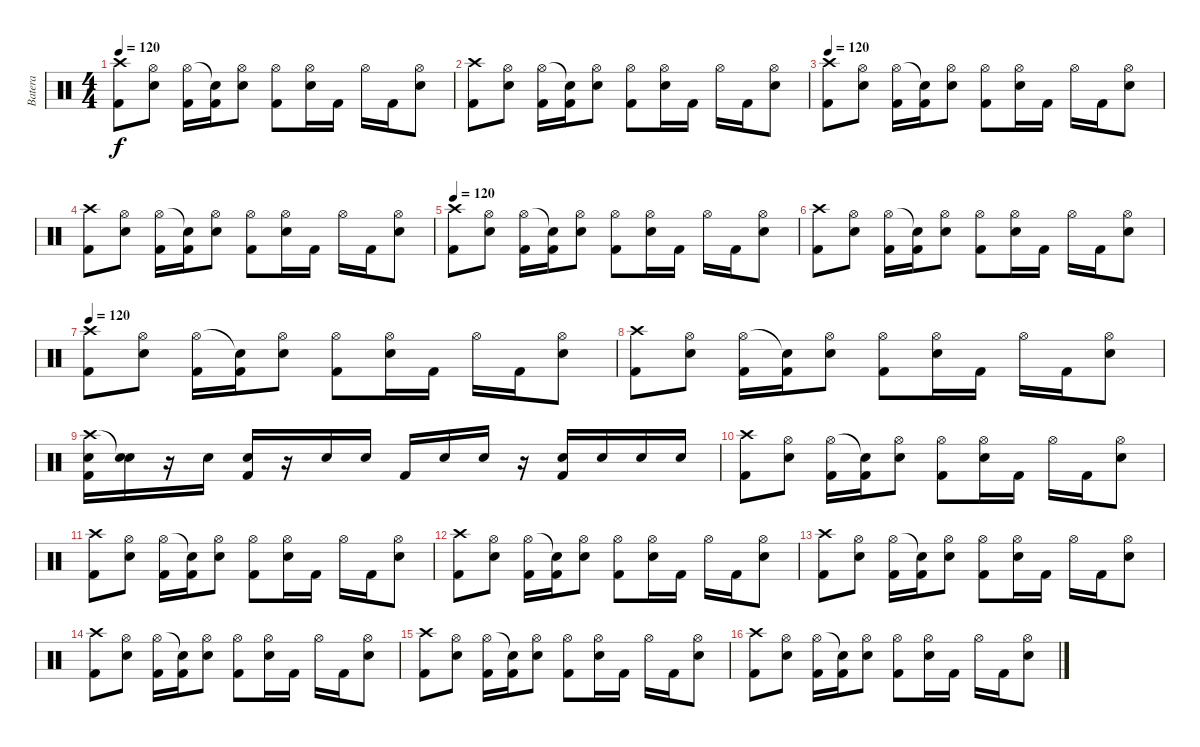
\track ("Batera" "Batera") {instrument percussion}
\staff {score}
\articulation defaults
\ts (4 4)
\tempo 120
\clef neutral
\ks c
("Crash high (hit)" "Kick (hit) 2").8{dy f} ("Hi-Hat (open)" "Electric Snare (hit)").8 ("Hi-Hat (open)" "Kick (hit) 2").16 ("Snare (hit)"{t} "Kick (hit) 2").16 ("Hi-Hat (open)" "Electric Snare (hit)").8 ("Hi-Hat (open)" "Kick (hit) 2").8 ("Hi-Hat (open)" "Electric Snare (hit)").16 "Kick (hit) 2".16 "Hi-Hat (open)".16 "Kick (hit) 2".16 ("Hi-Hat (open)" "Electric Snare (hit)").8 |
("Crash high (hit)" "Kick (hit) 2").8 ("Hi-Hat (open)" "Electric Snare (hit)").8 ("Hi-Hat (open)" "Kick (hit) 2").16 ("Snare (hit)"{t} "Kick (hit) 2").16 ("Hi-Hat (open)" "Electric Snare (hit)").8 ("Hi-Hat (open)" "Kick (hit) 2").8 ("Hi-Hat (open)" "Electric Snare (hit)").16 "Kick (hit) 2".16 "Hi-Hat (open)".16 "Kick (hit) 2".16 ("Hi-Hat (open)" "Electric Snare (hit)").8 |
\tempo 120
("Crash high (hit)" "Kick (hit) 2").8 ("Hi-Hat (open)" "Electric Snare (hit)").8 ("Hi-Hat (open)" "Kick (hit) 2").16 ("Snare (hit)"{t} "Kick (hit) 2").16 ("Hi-Hat (open)" "Electric Snare (hit)").8 ("Hi-Hat (open)" "Kick (hit) 2").8 ("Hi-Hat (open)" "Electric Snare (hit)").16 "Kick (hit) 2".16 "Hi-Hat (open)".16 "Kick (hit) 2".16 ("Hi-Hat (open)" "Electric Snare (hit)").8 |
("Crash high (hit)" "Kick (hit) 2").8 ("Hi-Hat (open)" "Electric Snare (hit)").8 ("Hi-Hat (open)" "Kick (hit) 2").16 ("Snare (hit)"{t} "Kick (hit) 2").16 ("Hi-Hat (open)" "Electric Snare (hit)").8 ("Hi-Hat (open)" "Kick (hit) 2").8 ("Hi-Hat (open)" "Electric Snare (hit)").16 "Kick (hit) 2".16 "Hi-Hat (open)".16 "Kick (hit) 2".16 ("Hi-Hat (open)" "Electric Snare (hit)").8 |
\tempo 120
("Crash high (hit)" "Kick (hit) 2").8 ("Hi-Hat (open)" "Electric Snare (hit)").8 ("Hi-Hat (open)" "Kick (hit) 2").16 ("Snare (hit)"{t} "Kick (hit) 2").16 ("Hi-Hat (open)" "Electric Snare (hit)").8 ("Hi-Hat (open)" "Kick (hit) 2").8 ("Hi-Hat (open)" "Electric Snare (hit)").16 "Kick (hit) 2".16 "Hi-Hat (open)".16 "Kick (hit) 2".16 ("Hi-Hat (open)" "Electric Snare (hit)").8 |
("Crash high (hit)" "Kick (hit) 2").8 ("Hi-Hat (open)" "Electric Snare (hit)").8 ("Hi-Hat (open)" "Kick (hit) 2").16 ("Snare (hit)"{t} "Kick (hit) 2").16 ("Hi-Hat (open)" "Electric Snare (hit)").8 ("Hi-Hat (open)" "Kick (hit) 2").8 ("Hi-Hat (open)" "Electric Snare (hit)").16 "Kick (hit) 2".16 "Hi-Hat (open)".16 "Kick (hit) 2".16 ("Hi-Hat (open)" "Electric Snare (hit)").8 |
\tempo 120
("Crash high (hit)" "Kick (hit) 2").8 ("Hi-Hat (open)" "Electric Snare (hit)").8 ("Hi-Hat (open)" "Kick (hit) 2").16 ("Snare (hit)"{t} "Kick (hit) 2").16 ("Hi-Hat (open)" "Electric Snare (hit)").8 ("Hi-Hat (open)" "Kick (hit) 2").8 ("Hi-Hat (open)" "Electric Snare (hit)").16 "Kick (hit) 2".16 "Hi-Hat (open)".16 "Kick (hit) 2".16 ("Hi-Hat (open)" "Electric Snare (hit)").8 |
("Crash high (hit)" "Kick (hit) 2").8 ("Hi-Hat (open)" "Electric Snare (hit)").8 ("Hi-Hat (open)" "Kick (hit) 2").16 ("Snare (hit)"{t} "Kick (hit) 2").16 ("Hi-Hat (open)" "Electric Snare (hit)").8 ("Hi-Hat (open)" "Kick (hit) 2").8 ("Hi-Hat (open)" "Electric Snare (hit)").16 "Kick (hit) 2".16 "Hi-Hat (open)".16 "Kick (hit) 2".16 ("Hi-Hat (open)" "Electric Snare (hit)").8 |
("Crash high (hit)" "Electric Snare (hit)" "Kick (hit) 2").16 ("Snare (hit)"{t} "Electric Snare (hit)").16 r.16 "Electric Snare (hit)".16 ("Electric Snare (hit)" "Kick (hit) 2").16 r.16 "Electric Snare (hit)".16 "Electric Snare (hit)".16 "Kick (hit) 2".16 "Electric Snare (hit)".16 "Electric Snare (hit)".16 r.16 ("Electric Snare (hit)" "Kick (hit) 2").16 "Electric Snare (hit)".16 "Electric Snare (hit)".16 "Electric Snare (hit)".16 |
("Crash high (hit)" "Kick (hit) 2").8 ("Hi-Hat (open)" "Electric Snare (hit)").8 ("Hi-Hat (open)" "Kick (hit) 2").16 ("Snare (hit)"{t} "Kick (hit) 2").16 ("Hi-Hat (open)" "Electric Snare (hit)").8 ("Hi-Hat (open)" "Kick (hit) 2").8 ("Hi-Hat (open)" "Electric Snare (hit)").16 "Kick (hit) 2".16 "Hi-Hat (open)".16 "Kick (hit) 2".16 ("Hi-Hat (open)" "Electric Snare (hit)").8 |
("Crash high (hit)" "Kick (hit) 2").8 ("Hi-Hat (open)" "Electric Snare (hit)").8 ("Hi-Hat (open)" "Kick (hit) 2").16 ("Snare (hit)"{t} "Kick (hit) 2").16 ("Hi-Hat (open)" "Electric Snare (hit)").8 ("Hi-Hat (open)" "Kick (hit) 2").8 ("Hi-Hat (open)" "Electric Snare (hit)").16 "Kick (hit) 2".16 "Hi-Hat (open)".16 "Kick (hit) 2".16 ("Hi-Hat (open)" "Electric Snare (hit)").8 |
("Crash high (hit)" "Kick (hit) 2").8 ("Hi-Hat (open)" "Electric Snare (hit)").8 ("Hi-Hat (open)" "Kick (hit) 2").16 ("Snare (hit)"{t} "Kick (hit) 2").16 ("Hi-Hat (open)" "Electric Snare (hit)").8 ("Hi-Hat (open)" "Kick (hit) 2").8 ("Hi-Hat (open)" "Electric Snare (hit)").16 "Kick (hit) 2".16 "Hi-Hat (open)".16 "Kick (hit) 2".16 ("Hi-Hat (open)" "Electric Snare (hit)").8 |
("Crash high (hit)" "Kick (hit) 2").8 ("Hi-Hat (open)" "Electric Snare (hit)").8 ("Hi-Hat (open)" "Kick (hit) 2").16 ("Snare (hit)"{t} "Kick (hit) 2").16 ("Hi-Hat (open)" "Electric Snare (hit)").8 ("Hi-Hat (open)" "Kick (hit) 2").8 ("Hi-Hat (open)" "Electric Snare (hit)").16 "Kick (hit) 2".16 "Hi-Hat (open)".16 "Kick (hit) 2".16 ("Hi-Hat (open)" "Electric Snare (hit)").8 |
("Crash high (hit)" "Kick (hit) 2").8 ("Hi-Hat (open)" "Electric Snare (hit)").8 ("Hi-Hat (open)" "Kick (hit) 2").16 ("Snare (hit)"{t} "Kick (hit) 2").16 ("Hi-Hat (open)" "Electric Snare (hit)").8 ("Hi-Hat (open)" "Kick (hit) 2").8 ("Hi-Hat (open)" "Electric Snare (hit)").16 "Kick (hit) 2".16 "Hi-Hat (open)".16 "Kick (hit) 2".16 ("Hi-Hat (open)" "Electric Snare (hit)").8 |
("Crash high (hit)" "Kick (hit) 2").8 ("Hi-Hat (open)" "Electric Snare (hit)").8 ("Hi-Hat (open)" "Kick (hit) 2").16 ("Snare (hit)"{t} "Kick (hit) 2").16 ("Hi-Hat (open)" "Electric Snare (hit)").8 ("Hi-Hat (open)" "Kick (hit) 2").8 ("Hi-Hat (open)" "Electric Snare (hit)").16 "Kick (hit) 2".16 "Hi-Hat (open)".16 "Kick (hit) 2".16 ("Hi-Hat (open)" "Electric Snare (hit)").8 |
("Crash high (hit)" "Kick (hit) 2").8 ("Hi-Hat (open)" "Electric Snare (hit)").8 ("Hi-Hat (open)" "Kick (hit) 2").16 ("Snare (hit)"{t} "Kick (hit) 2").16 ("Hi-Hat (open)" "Electric Snare (hit)").8 ("Hi-Hat (open)" "Kick (hit) 2").8 ("Hi-Hat (open)" "Electric Snare (hit)").16 "Kick (hit) 2".16 "Hi-Hat (open)".16 "Kick (hit) 2".16 ("Hi-Hat (open)" "Electric Snare (hit)").8
